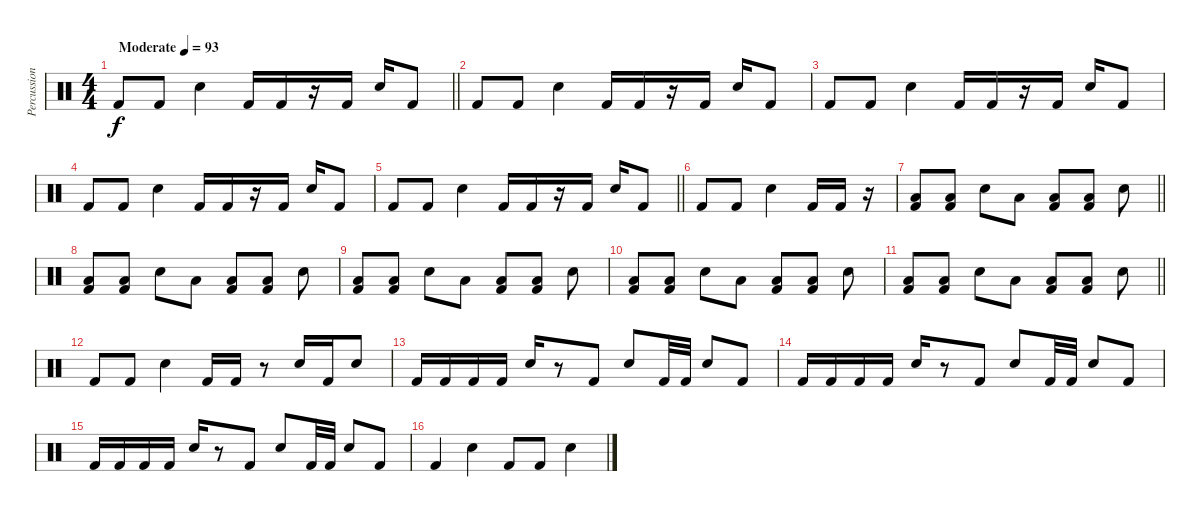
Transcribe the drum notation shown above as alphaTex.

\track ("Percussion" "Percussion") {instrument percussion}
\staff {score}
\articulation defaults
\ts (4 4)
\tempo (93 "Moderate")
\clef neutral
\barLineRight lightlight
\ks c "Kick (hit) 2".8{dy f} "Kick (hit) 2".8 "Snare (hit) 2".4 "Kick (hit) 2".16 "Kick (hit) 2".16
r.16 "Kick (hit) 2".16 "Snare (hit) 2".16 "Kick (hit) 2".8 |
"Kick (hit) 2".8 "Kick (hit) 2".8 "Snare (hit) 2".4 "Kick (hit) 2".16 "Kick (hit) 2".16 r.16 "Kick (hit) 2".16 "Snare (hit) 2".16 "Kick (hit) 2".8 |
"Kick (hit) 2".8 "Kick (hit) 2".8 "Snare (hit) 2".4 "Kick (hit) 2".16 "Kick (hit) 2".16 r.16 "Kick (hit) 2".16 "Snare (hit) 2".16 "Kick (hit) 2".8 |
"Kick (hit) 2".8 "Kick (hit) 2".8 "Snare (hit) 2".4 "Kick (hit) 2".16 "Kick (hit) 2".16 r.16 "Kick (hit) 2".16 "Snare (hit) 2".16 "Kick (hit) 2".8 |
\barLineRight lightlight "Kick (hit) 2".8 "Kick (hit) 2".8 "Snare (hit) 2".4 "Kick (hit) 2".16 "Kick (hit) 2".16
r.16 "Kick (hit) 2".16 "Snare (hit) 2".16 "Kick (hit) 2".8 |
"Kick (hit) 2".8 "Kick (hit) 2".8 "Snare (hit) 2".4 "Kick (hit) 2".16 "Kick (hit) 2".16 r.16 |
\barLineRight lightlight
("Low Floor Tom (hit)" "Kick (hit) 2").8 ("Low Tom (hit)" "Kick (hit) 2").8 "Snare (hit) 2".8 "Low Tom (hit)".8 ("Low Floor Tom (hit)" "Kick (hit) 2").8 ("Low Tom (hit)" "Kick (hit) 2").8 "Snare (hit) 2".8 |
("Low Floor Tom (hit)" "Kick (hit) 2").8 ("Low Tom (hit)" "Kick (hit) 2").8 "Snare (hit) 2".8 "Low Tom (hit)".8 ("Low Floor Tom (hit)" "Kick (hit) 2").8 ("Low Tom (hit)" "Kick (hit) 2").8 "Snare (hit) 2".8 |
("Low Floor Tom (hit)" "Kick (hit) 2").8 ("Low Tom (hit)" "Kick (hit) 2").8 "Snare (hit) 2".8 "Low Tom (hit)".8 ("Low Floor Tom (hit)" "Kick (hit) 2").8 ("Low Tom (hit)" "Kick (hit) 2").8 "Snare (hit) 2".8 |
("Low Floor Tom (hit)" "Kick (hit) 2").8 ("Low Tom (hit)" "Kick (hit) 2").8 "Snare (hit) 2".8 "Low Tom (hit)".8 ("Low Floor Tom (hit)" "Kick (hit) 2").8 ("Low Tom (hit)" "Kick (hit) 2").8 "Snare (hit) 2".8 |
\barLineRight lightlight
("Low Floor Tom (hit)" "Kick (hit) 2").8 ("Low Tom (hit)" "Kick (hit) 2").8 "Snare (hit) 2".8 "Low Tom (hit)".8 ("Low Floor Tom (hit)" "Kick (hit) 2").8 ("Low Tom (hit)" "Kick (hit) 2").8 "Snare (hit) 2".8 |
"Kick (hit) 2".8 "Kick (hit) 2".8 "Snare (hit) 2".4 "Kick (hit) 2".16 "Kick (hit) 2".16 r.8 "Snare (hit) 2".16 "Kick (hit) 2".16 "Snare (hit) 2".8 |
"Kick (hit) 2".16 "Kick (hit) 2".16 "Kick (hit) 2".16 "Kick (hit) 2".16 "Snare (hit) 2".16 r.8 "Kick (hit) 2".8 "Snare (hit) 2".8 "Kick (hit) 2".32 "Kick (hit) 2".32 "Snare (hit) 2".8 "Kick (hit) 2".8 |
"Kick (hit) 2".16 "Kick (hit) 2".16 "Kick (hit) 2".16 "Kick (hit) 2".16 "Snare (hit) 2".16 r.8 "Kick (hit) 2".8 "Snare (hit) 2".8 "Kick (hit) 2".32 "Kick (hit) 2".32 "Snare (hit) 2".8 "Kick (hit) 2".8 |
"Kick (hit) 2".16 "Kick (hit) 2".16 "Kick (hit) 2".16 "Kick (hit) 2".16 "Snare (hit) 2".16 r.8 "Kick (hit) 2".8 "Snare (hit) 2".8 "Kick (hit) 2".32 "Kick (hit) 2".32 "Snare (hit) 2".8 "Kick (hit) 2".8 |
"Kick (hit) 2".4 "Snare (hit) 2".4 "Kick (hit) 2".8 "Kick (hit) 2".8 "Snare (hit) 2".4
